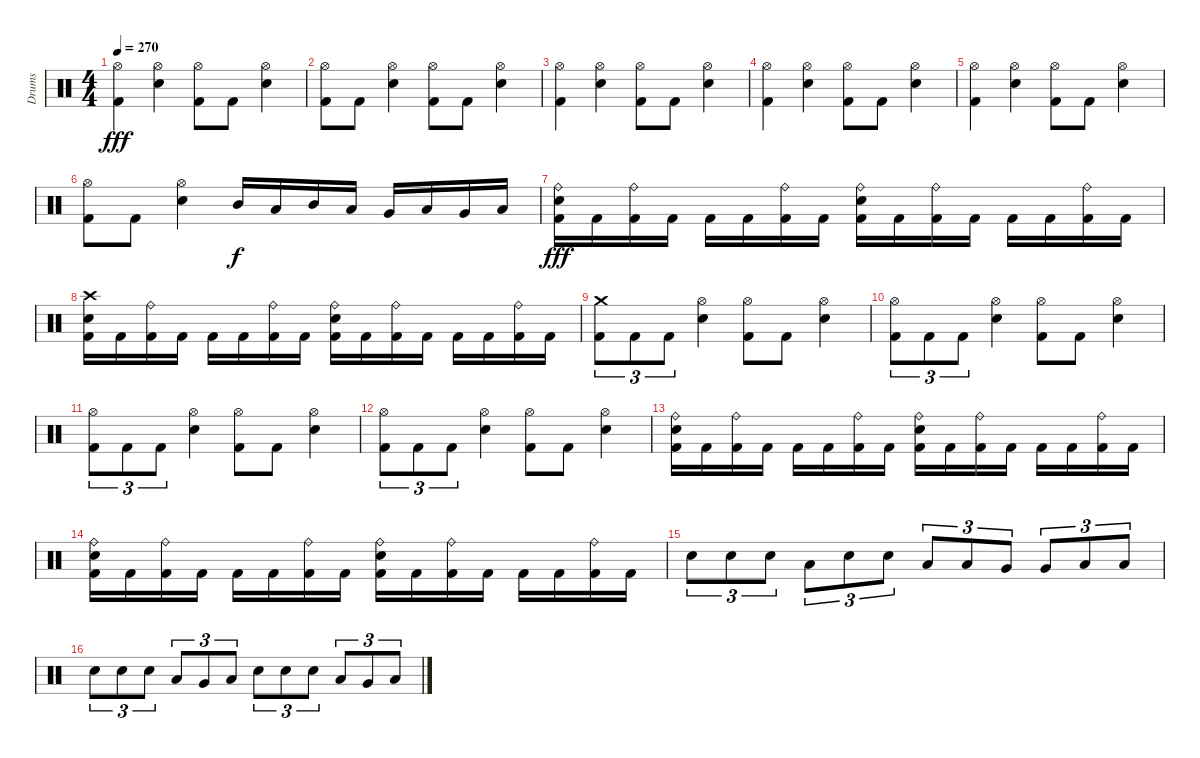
\track ("Drums" "Drums") {instrument percussion}
\staff {score}
\articulation defaults
\ts (4 4)
\tempo 270
\clef neutral
\ks c
("Kick (hit) 2" "Hi-Hat (open)").4{dy fff} ("Snare (hit) 2" "Hi-Hat (open)").4 ("Kick (hit) 2" "Hi-Hat (open)").8 "Kick (hit) 2".8 ("Snare (hit) 2" "Hi-Hat (open)").4 |
("Kick (hit) 2" "Hi-Hat (open)").8 "Kick (hit) 2".8 ("Snare (hit) 2" "Hi-Hat (open)").4 ("Kick (hit) 2" "Hi-Hat (open)").8 "Kick (hit) 2".8 ("Snare (hit) 2" "Hi-Hat (open)").4 |
("Kick (hit) 2" "Hi-Hat (open)").4 ("Snare (hit) 2" "Hi-Hat (open)").4 ("Kick (hit) 2" "Hi-Hat (open)").8 "Kick (hit) 2".8 ("Snare (hit) 2" "Hi-Hat (open)").4 |
("Kick (hit) 2" "Hi-Hat (open)").4 ("Snare (hit) 2" "Hi-Hat (open)").4 ("Kick (hit) 2" "Hi-Hat (open)").8 "Kick (hit) 2".8 ("Snare (hit) 2" "Hi-Hat (open)").4 |
("Kick (hit) 2" "Hi-Hat (open)").4 ("Snare (hit) 2" "Hi-Hat (open)").4 ("Kick (hit) 2" "Hi-Hat (open)").8 "Kick (hit) 2".8 ("Snare (hit) 2" "Hi-Hat (open)").4 |
("Kick (hit) 2" "Hi-Hat (open)").8 "Kick (hit) 2".8 ("Snare (hit) 2" "Hi-Hat (open)").4 "Mid Tom (hit)".16{dy f} "Low Tom (hit)".16 "Mid Tom (hit)".16 "Low Tom (hit)".16 "Very Low Tom (hit)".16 "Low Floor Tom (hit)".16 "Very Low Tom (hit)".16 "Low Floor Tom (hit)".16 |
("Kick (hit) 2" "Snare (hit) 2" "Ride (bell)").16{dy fff} "Kick (hit) 2".16 ("Kick (hit) 2" "Ride (bell)").16 "Kick (hit) 2".16 "Kick (hit) 2".16 "Kick (hit) 2".16 ("Kick (hit) 2" "Ride (bell)").16 "Kick (hit) 2".16 ("Kick (hit) 2" "Snare (hit) 2" "Ride (bell)").16 "Kick (hit) 2".16 ("Kick (hit) 2" "Ride (bell)").16 "Kick (hit) 2".16 "Kick (hit) 2".16 "Kick (hit) 2".16 ("Kick (hit) 2" "Ride (bell)").16 "Kick (hit) 2".16 |
("Kick (hit) 2" "Snare (hit) 2" "Crash high (hit)").16 "Kick (hit) 2".16 ("Kick (hit) 2" "Ride (bell)").16 "Kick (hit) 2".16 "Kick (hit) 2".16 "Kick (hit) 2".16 ("Kick (hit) 2" "Ride (bell)").16 "Kick (hit) 2".16 ("Kick (hit) 2" "Snare (hit) 2" "Ride (bell)").16 "Kick (hit) 2".16 ("Kick (hit) 2" "Ride (bell)").16 "Kick (hit) 2".16 "Kick (hit) 2".16 "Kick (hit) 2".16 ("Kick (hit) 2" "Ride (bell)").16 "Kick (hit) 2".16 |
("Kick (hit) 2" "Crash medium (hit)").8{tu (3 2)} "Kick (hit) 2".8{tu (3 2)} "Kick (hit) 2".8{tu (3 2)} ("Snare (hit) 2" "Hi-Hat (open)").4 ("Kick (hit) 2" "Hi-Hat (open)").8 "Kick (hit) 2".8 ("Snare (hit) 2" "Hi-Hat (open)").4 |
("Kick (hit) 2" "Hi-Hat (open)").8{tu (3 2)} "Kick (hit) 2".8{tu (3 2)} "Kick (hit) 2".8{tu (3 2)} ("Snare (hit) 2" "Hi-Hat (open)").4 ("Kick (hit) 2" "Hi-Hat (open)").8 "Kick (hit) 2".8 ("Snare (hit) 2" "Hi-Hat (open)").4 |
("Kick (hit) 2" "Hi-Hat (open)").8{tu (3 2)} "Kick (hit) 2".8{tu (3 2)} "Kick (hit) 2".8{tu (3 2)} ("Snare (hit) 2" "Hi-Hat (open)").4 ("Kick (hit) 2" "Hi-Hat (open)").8 "Kick (hit) 2".8 ("Snare (hit) 2" "Hi-Hat (open)").4 |
("Kick (hit) 2" "Hi-Hat (open)").8{tu (3 2)} "Kick (hit) 2".8{tu (3 2)} "Kick (hit) 2".8{tu (3 2)} ("Snare (hit) 2" "Hi-Hat (open)").4 ("Kick (hit) 2" "Hi-Hat (open)").8 "Kick (hit) 2".8 ("Snare (hit) 2" "Hi-Hat (open)").4 |
("Kick (hit) 2" "Snare (hit) 2" "Ride (bell)").16 "Kick (hit) 2".16 ("Kick (hit) 2" "Ride (bell)").16 "Kick (hit) 2".16 "Kick (hit) 2".16 "Kick (hit) 2".16 ("Kick (hit) 2" "Ride (bell)").16 "Kick (hit) 2".16 ("Kick (hit) 2" "Snare (hit) 2" "Ride (bell)").16 "Kick (hit) 2".16 ("Kick (hit) 2" "Ride (bell)").16 "Kick (hit) 2".16 "Kick (hit) 2".16 "Kick (hit) 2".16 ("Kick (hit) 2" "Ride (bell)").16 "Kick (hit) 2".16 |
("Kick (hit) 2" "Snare (hit) 2" "Ride (bell)").16 "Kick (hit) 2".16 ("Kick (hit) 2" "Ride (bell)").16 "Kick (hit) 2".16 "Kick (hit) 2".16 "Kick (hit) 2".16 ("Kick (hit) 2" "Ride (bell)").16 "Kick (hit) 2".16 ("Kick (hit) 2" "Snare (hit) 2" "Ride (bell)").16 "Kick (hit) 2".16 ("Kick (hit) 2" "Ride (bell)").16 "Kick (hit) 2".16 "Kick (hit) 2".16 "Kick (hit) 2".16 ("Kick (hit) 2" "Ride (bell)").16 "Kick (hit) 2".16 |
"Snare (hit) 2".8{tu (3 2)} "Snare (hit) 2".8{tu (3 2)} "Snare (hit) 2".8{tu (3 2)} "Low Tom (hit)".8{tu (3 2)} "Snare (hit) 2".8{tu (3 2)} "Snare (hit) 2".8{tu (3 2)} "Low Tom (hit)".8{tu (3 2)} "Low Tom (hit)".8{tu (3 2)} "Very Low Tom (hit)".8{tu (3 2)} "Very Low Tom (hit)".8{tu (3 2)} "Low Floor Tom (hit)".8{tu (3 2)} "Low Floor Tom (hit)".8{tu (3 2)} |
"Snare (hit) 2".8{tu (3 2)} "Snare (hit) 2".8{tu (3 2)} "Snare (hit) 2".8{tu (3 2)} "Low Tom (hit)".8{tu (3 2)} "Very Low Tom (hit)".8{tu (3 2)} "Low Floor Tom (hit)".8{tu (3 2)} "Snare (hit) 2".8{tu (3 2)} "Snare (hit) 2".8{tu (3 2)} "Snare (hit) 2".8{tu (3 2)} "Low Tom (hit)".8{tu (3 2)} "Very Low Tom (hit)".8{tu (3 2)} "Low Floor Tom (hit)".8{tu (3 2)}
